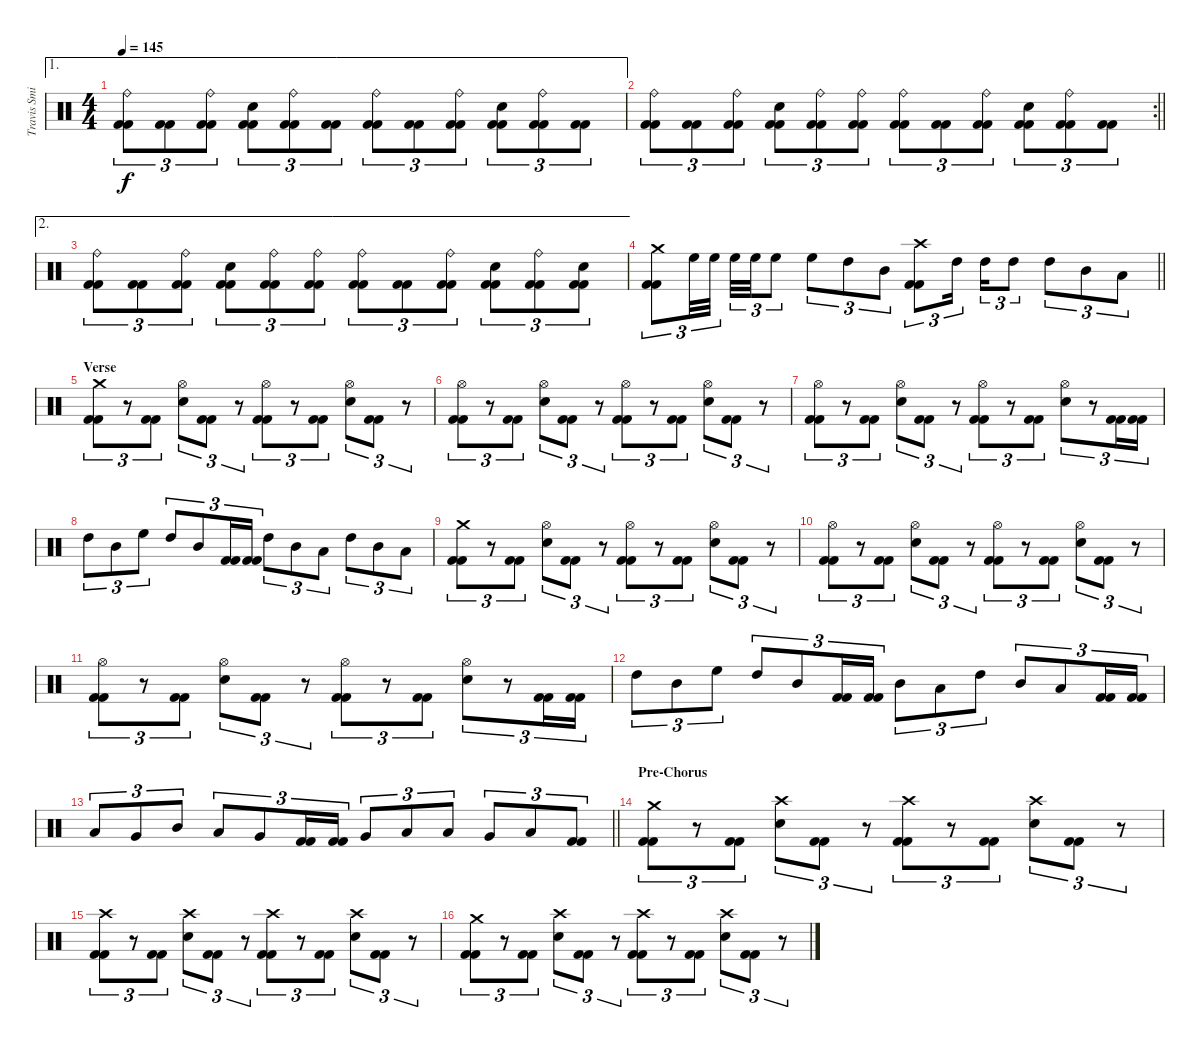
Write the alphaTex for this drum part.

\track ("Travis Smith" "Travis Smi") {instrument percussion}
\staff {score}
\articulation defaults
\ae 1
\ts (4 4)
\tempo 145
\clef neutral
\ks c
("Ride (bell)" "Kick (hit) 2" "Kick (hit) 2").8{tu (3 2) dy f} ("Kick (hit) 2" "Kick (hit) 2").8{tu (3 2)} ("Ride (bell)" "Kick (hit) 2" "Kick (hit) 2").8{tu (3 2)} ("Electric Snare (hit)" "Kick (hit) 2" "Kick (hit) 2").8{tu (3 2)} ("Ride (bell)" "Kick (hit) 2" "Kick (hit) 2").8{tu (3 2)} ("Kick (hit) 2" "Kick (hit) 2").8{tu (3 2)} ("Ride (bell)" "Kick (hit) 2" "Kick (hit) 2").8{tu (3 2)} ("Kick (hit) 2" "Kick (hit) 2").8{tu (3 2)} ("Ride (bell)" "Kick (hit) 2" "Kick (hit) 2").8{tu (3 2)} ("Electric Snare (hit)" "Kick (hit) 2" "Kick (hit) 2").8{tu (3 2)} ("Ride (bell)" "Kick (hit) 2" "Kick (hit) 2").8{tu (3 2)} ("Kick (hit) 2" "Kick (hit) 2").8{tu (3 2)} |
\rc 2
\barLineRight lightlight
("Ride (bell)" "Kick (hit) 2" "Kick (hit) 2").8{tu (3 2)} ("Kick (hit) 2" "Kick (hit) 2").8{tu (3 2)} ("Ride (bell)" "Kick (hit) 2" "Kick (hit) 2").8{tu (3 2)} ("Electric Snare (hit)" "Kick (hit) 2" "Kick (hit) 2").8{tu (3 2)} ("Ride (bell)" "Kick (hit) 2" "Kick (hit) 2").8{tu (3 2)} ("Ride (bell)" "Kick (hit) 2" "Kick (hit) 2").8{tu (3 2)} ("Ride (bell)" "Kick (hit) 2" "Kick (hit) 2").8{tu (3 2)} ("Kick (hit) 2" "Kick (hit) 2").8{tu (3 2)} ("Ride (bell)" "Kick (hit) 2" "Kick (hit) 2").8{tu (3 2)} ("Electric Snare (hit)" "Kick (hit) 2" "Kick (hit) 2").8{tu (3 2)} ("Ride (bell)" "Kick (hit) 2" "Kick (hit) 2").8{tu (3 2)} ("Kick (hit) 2" "Kick (hit) 2").8{tu (3 2)} |
\ae 2
("Ride (bell)" "Kick (hit) 2" "Kick (hit) 2").8{tu (3 2)} ("Kick (hit) 2" "Kick (hit) 2").8{tu (3 2)} ("Ride (bell)" "Kick (hit) 2" "Kick (hit) 2").8{tu (3 2)} ("Electric Snare (hit)" "Kick (hit) 2" "Kick (hit) 2").8{tu (3 2)} ("Ride (bell)" "Kick (hit) 2" "Kick (hit) 2").8{tu (3 2)} ("Ride (bell)" "Kick (hit) 2" "Kick (hit) 2").8{tu (3 2)} ("Ride (bell)" "Kick (hit) 2" "Kick (hit) 2").8{tu (3 2)} ("Kick (hit) 2" "Kick (hit) 2").8{tu (3 2)} ("Ride (bell)" "Kick (hit) 2" "Kick (hit) 2").8{tu (3 2)} ("Electric Snare (hit)" "Kick (hit) 2" "Kick (hit) 2").8{tu (3 2)} ("Ride (bell)" "Kick (hit) 2" "Kick (hit) 2").8{tu (3 2)} ("Electric Snare (hit)" "Kick (hit) 2" "Kick (hit) 2").8{tu (3 2)} |
\barLineRight lightlight
("Crash medium (hit)" "Kick (hit) 2" "Kick (hit) 2").8{tu (3 2)} "High Floor Tom (hit)".32{tu (3 2)} "High Floor Tom (hit)".32{tu (3 2) beam splitsecondary} "High Floor Tom (hit)".32{tu (3 2)} "High Floor Tom (hit)".32{tu (3 2)} "High Floor Tom (hit)".8{tu (3 2)} "High Floor Tom (hit)".8{tu (3 2)} "High Tom (hit)".8{tu (3 2)} "Mid Tom (hit)".8{tu (3 2)} ("Crash high (hit)" "Kick (hit) 2" "Kick (hit) 2").8{tu (3 2)} "High Tom (hit)".16{tu (3 2) beam splitsecondary} "High Tom (hit)".16{tu (3 2)} "High Tom (hit)".8{tu (3 2)} "High Tom (hit)".8{tu (3 2)} "Mid Tom (hit)".8{tu (3 2)} "Low Tom (hit)".8{tu (3 2)} |
\section ("" "Verse")
("Crash medium (hit)" "Kick (hit) 2" "Kick (hit) 2").8{tu (3 2)} r.8{tu (3 2)} ("Kick (hit) 2" "Kick (hit) 2").8{tu (3 2)} ("Hi-Hat (open)" "Electric Snare (hit)").8{tu (3 2)} ("Kick (hit) 2" "Kick (hit) 2").8{tu (3 2)} r.8{tu (3 2)} ("Hi-Hat (open)" "Kick (hit) 2" "Kick (hit) 2").8{tu (3 2)} r.8{tu (3 2)} ("Kick (hit) 2" "Kick (hit) 2").8{tu (3 2)} ("Hi-Hat (open)" "Electric Snare (hit)").8{tu (3 2)} ("Kick (hit) 2" "Kick (hit) 2").8{tu (3 2)} r.8{tu (3 2)} |
("Hi-Hat (open)" "Kick (hit) 2" "Kick (hit) 2").8{tu (3 2)} r.8{tu (3 2)} ("Kick (hit) 2" "Kick (hit) 2").8{tu (3 2)} ("Hi-Hat (open)" "Electric Snare (hit)").8{tu (3 2)} ("Kick (hit) 2" "Kick (hit) 2").8{tu (3 2)} r.8{tu (3 2)} ("Hi-Hat (open)" "Kick (hit) 2" "Kick (hit) 2").8{tu (3 2)} r.8{tu (3 2)} ("Kick (hit) 2" "Kick (hit) 2").8{tu (3 2)} ("Hi-Hat (open)" "Electric Snare (hit)").8{tu (3 2)} ("Kick (hit) 2" "Kick (hit) 2").8{tu (3 2)} r.8{tu (3 2)} |
("Hi-Hat (open)" "Kick (hit) 2" "Kick (hit) 2").8{tu (3 2)} r.8{tu (3 2)} ("Kick (hit) 2" "Kick (hit) 2").8{tu (3 2)} ("Hi-Hat (open)" "Electric Snare (hit)").8{tu (3 2)} ("Kick (hit) 2" "Kick (hit) 2").8{tu (3 2)} r.8{tu (3 2)} ("Hi-Hat (open)" "Kick (hit) 2" "Kick (hit) 2").8{tu (3 2)} r.8{tu (3 2)} ("Kick (hit) 2" "Kick (hit) 2").8{tu (3 2)} ("Hi-Hat (open)" "Electric Snare (hit)").8{tu (3 2)} r.8{tu (3 2)} ("Kick (hit) 2" "Kick (hit) 2").16{tu (3 2)} ("Kick (hit) 2" "Kick (hit) 2").16{tu (3 2)} |
"High Tom (hit)".8{tu (3 2)} "Mid Tom (hit)".8{tu (3 2)} "High Floor Tom (hit)".8{tu (3 2)} "High Tom (hit)".8{tu (3 2)} "Mid Tom (hit)".8{tu (3 2)} ("Kick (hit) 2" "Kick (hit) 2").16{tu (3 2)} ("Kick (hit) 2" "Kick (hit) 2").16{tu (3 2)} "High Tom (hit)".8{tu (3 2)} "Mid Tom (hit)".8{tu (3 2)} "Low Tom (hit)".8{tu (3 2)} "High Tom (hit)".8{tu (3 2)} "Mid Tom (hit)".8{tu (3 2)} "Low Tom (hit)".8{tu (3 2)} |
("Crash medium (hit)" "Kick (hit) 2" "Kick (hit) 2").8{tu (3 2)} r.8{tu (3 2)} ("Kick (hit) 2" "Kick (hit) 2").8{tu (3 2)} ("Hi-Hat (open)" "Electric Snare (hit)").8{tu (3 2)} ("Kick (hit) 2" "Kick (hit) 2").8{tu (3 2)} r.8{tu (3 2)} ("Hi-Hat (open)" "Kick (hit) 2" "Kick (hit) 2").8{tu (3 2)} r.8{tu (3 2)} ("Kick (hit) 2" "Kick (hit) 2").8{tu (3 2)} ("Hi-Hat (open)" "Electric Snare (hit)").8{tu (3 2)} ("Kick (hit) 2" "Kick (hit) 2").8{tu (3 2)} r.8{tu (3 2)} |
("Hi-Hat (open)" "Kick (hit) 2" "Kick (hit) 2").8{tu (3 2)} r.8{tu (3 2)} ("Kick (hit) 2" "Kick (hit) 2").8{tu (3 2)} ("Hi-Hat (open)" "Electric Snare (hit)").8{tu (3 2)} ("Kick (hit) 2" "Kick (hit) 2").8{tu (3 2)} r.8{tu (3 2)} ("Hi-Hat (open)" "Kick (hit) 2" "Kick (hit) 2").8{tu (3 2)} r.8{tu (3 2)} ("Kick (hit) 2" "Kick (hit) 2").8{tu (3 2)} ("Hi-Hat (open)" "Electric Snare (hit)").8{tu (3 2)} ("Kick (hit) 2" "Kick (hit) 2").8{tu (3 2)} r.8{tu (3 2)} |
("Hi-Hat (open)" "Kick (hit) 2" "Kick (hit) 2").8{tu (3 2)} r.8{tu (3 2)} ("Kick (hit) 2" "Kick (hit) 2").8{tu (3 2)} ("Hi-Hat (open)" "Electric Snare (hit)").8{tu (3 2)} ("Kick (hit) 2" "Kick (hit) 2").8{tu (3 2)} r.8{tu (3 2)} ("Hi-Hat (open)" "Kick (hit) 2" "Kick (hit) 2").8{tu (3 2)} r.8{tu (3 2)} ("Kick (hit) 2" "Kick (hit) 2").8{tu (3 2)} ("Hi-Hat (open)" "Electric Snare (hit)").8{tu (3 2)} r.8{tu (3 2)} ("Kick (hit) 2" "Kick (hit) 2").16{tu (3 2)} ("Kick (hit) 2" "Kick (hit) 2").16{tu (3 2)} |
"High Tom (hit)".8{tu (3 2)} "Mid Tom (hit)".8{tu (3 2)} "High Floor Tom (hit)".8{tu (3 2)} "High Tom (hit)".8{tu (3 2)} "Mid Tom (hit)".8{tu (3 2)} ("Kick (hit) 2" "Kick (hit) 2").16{tu (3 2)} ("Kick (hit) 2" "Kick (hit) 2").16{tu (3 2)} "Mid Tom (hit)".8{tu (3 2)} "Low Tom (hit)".8{tu (3 2)} "High Tom (hit)".8{tu (3 2)} "Mid Tom (hit)".8{tu (3 2)} "Low Tom (hit)".8{tu (3 2)} ("Kick (hit) 2" "Kick (hit) 2").16{tu (3 2)} ("Kick (hit) 2" "Kick (hit) 2").16{tu (3 2)} |
\barLineRight lightlight "Low Tom (hit)".8{tu (3 2)} "Very Low Tom (hit)".8{tu (3 2)} "Mid Tom (hit)".8{tu (3 2)} "Low Tom (hit)".8{tu (3 2)} "Very Low Tom (hit)".8{tu (3 2)}
("Kick (hit) 2" "Kick (hit) 2").16{tu (3 2)} ("Kick (hit) 2" "Kick (hit) 2").16{tu (3 2)} "Very Low Tom (hit)".8{tu (3 2)} "Low Floor Tom (hit)".8{tu (3 2)} "Low Tom (hit)".8{tu (3 2)} "Very Low Tom (hit)".8{tu (3 2)} "Low Floor Tom (hit)".8{tu (3 2)} ("Kick (hit) 2" "Kick (hit) 2").8{tu (3 2)} |
\section ("" "Pre-Chorus")
("Crash medium (hit)" "Kick (hit) 2" "Kick (hit) 2").8{tu (3 2)} r.8{tu (3 2)} ("Kick (hit) 2" "Kick (hit) 2").8{tu (3 2)} ("Crash high (hit)" "Electric Snare (hit)").8{tu (3 2)} ("Kick (hit) 2" "Kick (hit) 2").8{tu (3 2)} r.8{tu (3 2)} ("Crash high (hit)" "Kick (hit) 2" "Kick (hit) 2").8{tu (3 2)} r.8{tu (3 2)} ("Kick (hit) 2" "Kick (hit) 2").8{tu (3 2)} ("Crash high (hit)" "Electric Snare (hit)").8{tu (3 2)} ("Kick (hit) 2" "Kick (hit) 2").8{tu (3 2)} r.8{tu (3 2)} |
("Crash high (hit)" "Kick (hit) 2" "Kick (hit) 2").8{tu (3 2)} r.8{tu (3 2)} ("Kick (hit) 2" "Kick (hit) 2").8{tu (3 2)} ("Crash high (hit)" "Electric Snare (hit)").8{tu (3 2)} ("Kick (hit) 2" "Kick (hit) 2").8{tu (3 2)} r.8{tu (3 2)} ("Crash high (hit)" "Kick (hit) 2" "Kick (hit) 2").8{tu (3 2)} r.8{tu (3 2)} ("Kick (hit) 2" "Kick (hit) 2").8{tu (3 2)} ("Crash high (hit)" "Electric Snare (hit)").8{tu (3 2)} ("Kick (hit) 2" "Kick (hit) 2").8{tu (3 2)} r.8{tu (3 2)} |
("Crash medium (hit)" "Kick (hit) 2" "Kick (hit) 2").8{tu (3 2)} r.8{tu (3 2)} ("Kick (hit) 2" "Kick (hit) 2").8{tu (3 2)} ("Crash high (hit)" "Electric Snare (hit)").8{tu (3 2)} ("Kick (hit) 2" "Kick (hit) 2").8{tu (3 2)} r.8{tu (3 2)} ("Crash high (hit)" "Kick (hit) 2" "Kick (hit) 2").8{tu (3 2)} r.8{tu (3 2)} ("Kick (hit) 2" "Kick (hit) 2").8{tu (3 2)} ("Crash high (hit)" "Electric Snare (hit)").8{tu (3 2)} ("Kick (hit) 2" "Kick (hit) 2").8{tu (3 2)} r.8{tu (3 2)}
